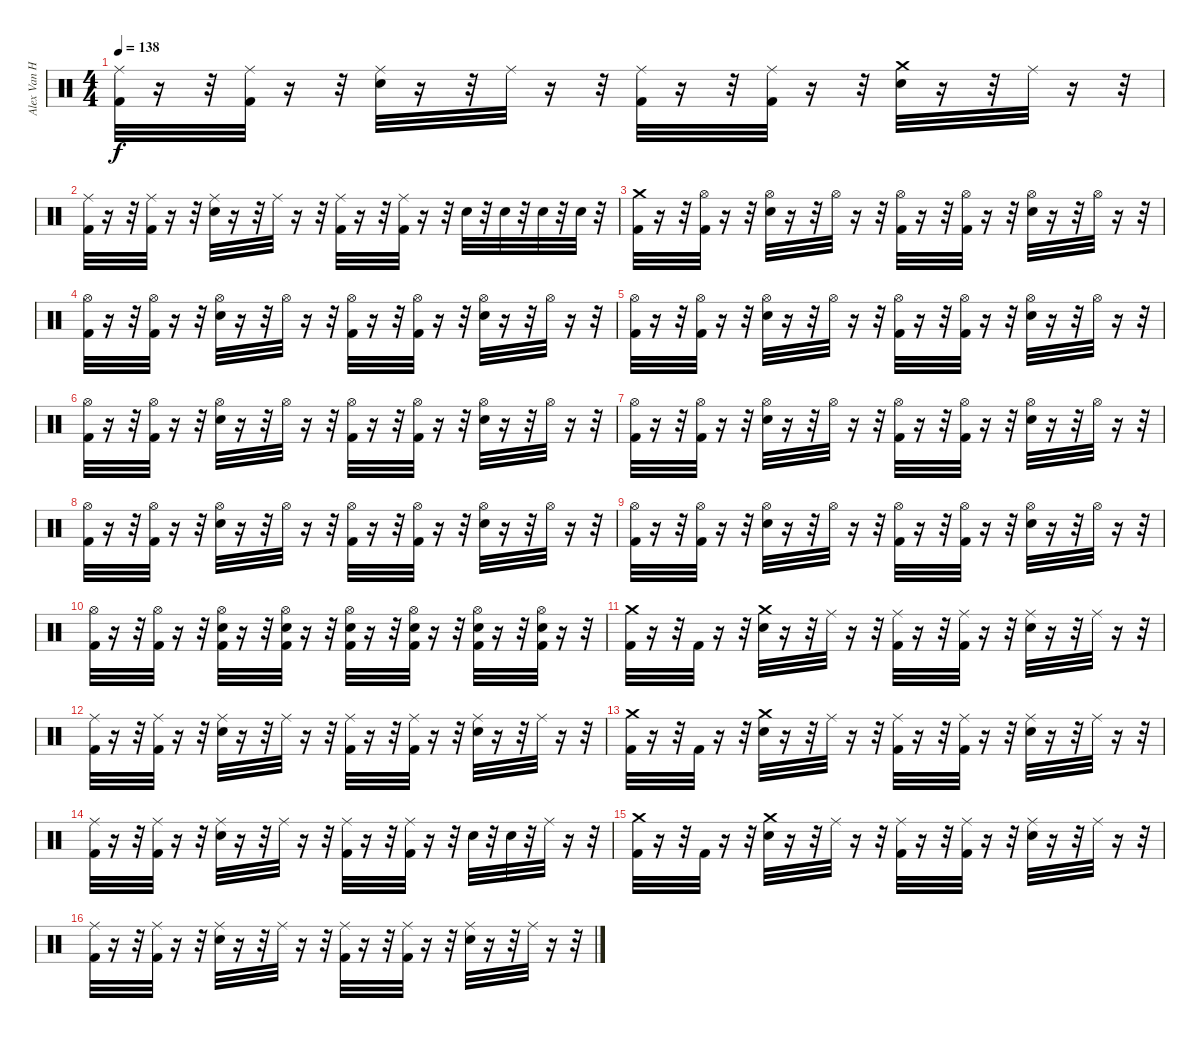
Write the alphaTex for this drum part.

\track ("Alex Van Halen (Drums)" "Alex Van H") {instrument percussion}
\staff {score}
\articulation defaults
\ts (4 4)
\tempo 138
\clef neutral
\ks c
("Kick (hit) 2" "Ride (middle)").32{dy f} r.16 r.32 ("Kick (hit) 2" "Ride (middle)").32 r.16 r.32 ("Snare (hit) 2" "Ride (middle)").32 r.16 r.32 "Ride (middle)".32 r.16 r.32 ("Kick (hit) 2" "Ride (middle)").32 r.16 r.32 ("Kick (hit) 2" "Ride (middle)").32 r.16 r.32 ("Snare (hit) 2" "Crash medium (hit)").32 r.16 r.32 "Ride (middle)".32 r.16 r.32 |
("Kick (hit) 2" "Ride (middle)").32 r.16 r.32 ("Kick (hit) 2" "Ride (middle)").32 r.16 r.32 ("Snare (hit) 2" "Ride (middle)").32 r.16 r.32 "Ride (middle)".32 r.16 r.32 ("Kick (hit) 2" "Ride (middle)").32 r.16 r.32 ("Kick (hit) 2" "Ride (middle)").32 r.16 r.32 "Snare (hit) 2".32 r.32 "Snare (hit) 2".32 r.32 "Snare (hit) 2".32 r.32 "Snare (hit) 2".32 r.32 |
("Kick (hit) 2" "Crash medium (hit)").32 r.16 r.32 ("Kick (hit) 2" "Hi-Hat (open)").32 r.16 r.32 ("Snare (hit) 2" "Hi-Hat (open)").32 r.16 r.32 "Hi-Hat (open)".32 r.16 r.32 ("Kick (hit) 2" "Hi-Hat (open)").32 r.16 r.32 ("Kick (hit) 2" "Hi-Hat (open)").32 r.16 r.32 ("Snare (hit) 2" "Hi-Hat (open)").32 r.16 r.32 "Hi-Hat (open)".32 r.16 r.32 |
("Kick (hit) 2" "Hi-Hat (open)").32 r.16 r.32 ("Kick (hit) 2" "Hi-Hat (open)").32 r.16 r.32 ("Snare (hit) 2" "Hi-Hat (open)").32 r.16 r.32 "Hi-Hat (open)".32 r.16 r.32 ("Kick (hit) 2" "Hi-Hat (open)").32 r.16 r.32 ("Kick (hit) 2" "Hi-Hat (open)").32 r.16 r.32 ("Snare (hit) 2" "Hi-Hat (open)").32 r.16 r.32 "Hi-Hat (open)".32 r.16 r.32 |
("Kick (hit) 2" "Hi-Hat (open)").32 r.16 r.32 ("Kick (hit) 2" "Hi-Hat (open)").32 r.16 r.32 ("Snare (hit) 2" "Hi-Hat (open)").32 r.16 r.32 "Hi-Hat (open)".32 r.16 r.32 ("Kick (hit) 2" "Hi-Hat (open)").32 r.16 r.32 ("Kick (hit) 2" "Hi-Hat (open)").32 r.16 r.32 ("Snare (hit) 2" "Hi-Hat (open)").32 r.16 r.32 "Hi-Hat (open)".32 r.16 r.32 |
("Kick (hit) 2" "Hi-Hat (open)").32 r.16 r.32 ("Kick (hit) 2" "Hi-Hat (open)").32 r.16 r.32 ("Snare (hit) 2" "Hi-Hat (open)").32 r.16 r.32 "Hi-Hat (open)".32 r.16 r.32 ("Kick (hit) 2" "Hi-Hat (open)").32 r.16 r.32 ("Kick (hit) 2" "Hi-Hat (open)").32 r.16 r.32 ("Snare (hit) 2" "Hi-Hat (open)").32 r.16 r.32 "Hi-Hat (open)".32 r.16 r.32 |
("Kick (hit) 2" "Hi-Hat (open)").32 r.16 r.32 ("Kick (hit) 2" "Hi-Hat (open)").32 r.16 r.32 ("Snare (hit) 2" "Hi-Hat (open)").32 r.16 r.32 "Hi-Hat (open)".32 r.16 r.32 ("Kick (hit) 2" "Hi-Hat (open)").32 r.16 r.32 ("Kick (hit) 2" "Hi-Hat (open)").32 r.16 r.32 ("Snare (hit) 2" "Hi-Hat (open)").32 r.16 r.32 "Hi-Hat (open)".32 r.16 r.32 |
("Kick (hit) 2" "Hi-Hat (open)").32 r.16 r.32 ("Kick (hit) 2" "Hi-Hat (open)").32 r.16 r.32 ("Snare (hit) 2" "Hi-Hat (open)").32 r.16 r.32 "Hi-Hat (open)".32 r.16 r.32 ("Kick (hit) 2" "Hi-Hat (open)").32 r.16 r.32 ("Kick (hit) 2" "Hi-Hat (open)").32 r.16 r.32 ("Snare (hit) 2" "Hi-Hat (open)").32 r.16 r.32 "Hi-Hat (open)".32 r.16 r.32 |
("Kick (hit) 2" "Hi-Hat (open)").32 r.16 r.32 ("Kick (hit) 2" "Hi-Hat (open)").32 r.16 r.32 ("Snare (hit) 2" "Hi-Hat (open)").32 r.16 r.32 "Hi-Hat (open)".32 r.16 r.32 ("Kick (hit) 2" "Hi-Hat (open)").32 r.16 r.32 ("Kick (hit) 2" "Hi-Hat (open)").32 r.16 r.32 ("Snare (hit) 2" "Hi-Hat (open)").32 r.16 r.32 "Hi-Hat (open)".32 r.16 r.32 |
("Kick (hit) 2" "Hi-Hat (open)").32 r.16 r.32 ("Kick (hit) 2" "Hi-Hat (open)").32 r.16 r.32 ("Snare (hit) 2" "Kick (hit) 2" "Hi-Hat (open)").32 r.16 r.32 ("Snare (hit) 2" "Kick (hit) 2" "Hi-Hat (open)").32 r.16 r.32 ("Snare (hit) 2" "Kick (hit) 2" "Hi-Hat (open)").32 r.16 r.32 ("Snare (hit) 2" "Kick (hit) 2" "Hi-Hat (open)").32 r.16 r.32 ("Snare (hit) 2" "Kick (hit) 2" "Hi-Hat (open)").32 r.16 r.32 ("Snare (hit) 2" "Kick (hit) 2" "Hi-Hat (open)").32 r.16 r.32 |
("Kick (hit) 2" "Crash medium (hit)").32 r.16 r.32 "Kick (hit) 2".32 r.16 r.32 ("Snare (hit) 2" "Crash medium (hit)").32 r.16 r.32 "Ride (middle)".32 r.16 r.32 ("Kick (hit) 2" "Ride (middle)").32 r.16 r.32 ("Kick (hit) 2" "Ride (middle)").32 r.16 r.32 ("Snare (hit) 2" "Ride (middle)").32 r.16 r.32 "Ride (middle)".32 r.16 r.32 |
("Kick (hit) 2" "Ride (middle)").32 r.16 r.32 ("Kick (hit) 2" "Ride (middle)").32 r.16 r.32 ("Snare (hit) 2" "Ride (middle)").32 r.16 r.32 "Ride (middle)".32 r.16 r.32 ("Kick (hit) 2" "Ride (middle)").32 r.16 r.32 ("Kick (hit) 2" "Ride (middle)").32 r.16 r.32 ("Snare (hit) 2" "Ride (middle)").32 r.16 r.32 "Ride (middle)".32 r.16 r.32 |
("Kick (hit) 2" "Crash medium (hit)").32 r.16 r.32 "Kick (hit) 2".32 r.16 r.32 ("Snare (hit) 2" "Crash medium (hit)").32 r.16 r.32 "Ride (middle)".32 r.16 r.32 ("Kick (hit) 2" "Ride (middle)").32 r.16 r.32 ("Kick (hit) 2" "Ride (middle)").32 r.16 r.32 ("Snare (hit) 2" "Ride (middle)").32 r.16 r.32 "Ride (middle)".32 r.16 r.32 |
("Kick (hit) 2" "Ride (middle)").32 r.16 r.32 ("Kick (hit) 2" "Ride (middle)").32 r.16 r.32 ("Snare (hit) 2" "Ride (middle)").32 r.16 r.32 "Ride (middle)".32 r.16 r.32 ("Kick (hit) 2" "Ride (middle)").32 r.16 r.32 ("Kick (hit) 2" "Ride (middle)").32 r.16 r.32 "Snare (hit) 2".32 r.32 "Snare (hit) 2".32 r.32 "Ride (middle)".32 r.16 r.32 |
("Kick (hit) 2" "Crash medium (hit)").32 r.16 r.32 "Kick (hit) 2".32 r.16 r.32 ("Snare (hit) 2" "Crash medium (hit)").32 r.16 r.32 "Ride (middle)".32 r.16 r.32 ("Kick (hit) 2" "Ride (middle)").32 r.16 r.32 ("Kick (hit) 2" "Ride (middle)").32 r.16 r.32 ("Snare (hit) 2" "Ride (middle)").32 r.16 r.32 "Ride (middle)".32 r.16 r.32 |
("Kick (hit) 2" "Ride (middle)").32 r.16 r.32 ("Kick (hit) 2" "Ride (middle)").32 r.16 r.32 ("Snare (hit) 2" "Ride (middle)").32 r.16 r.32 "Ride (middle)".32 r.16 r.32 ("Kick (hit) 2" "Ride (middle)").32 r.16 r.32 ("Kick (hit) 2" "Ride (middle)").32 r.16 r.32 ("Snare (hit) 2" "Ride (middle)").32 r.16 r.32 "Ride (middle)".32 r.16 r.32
